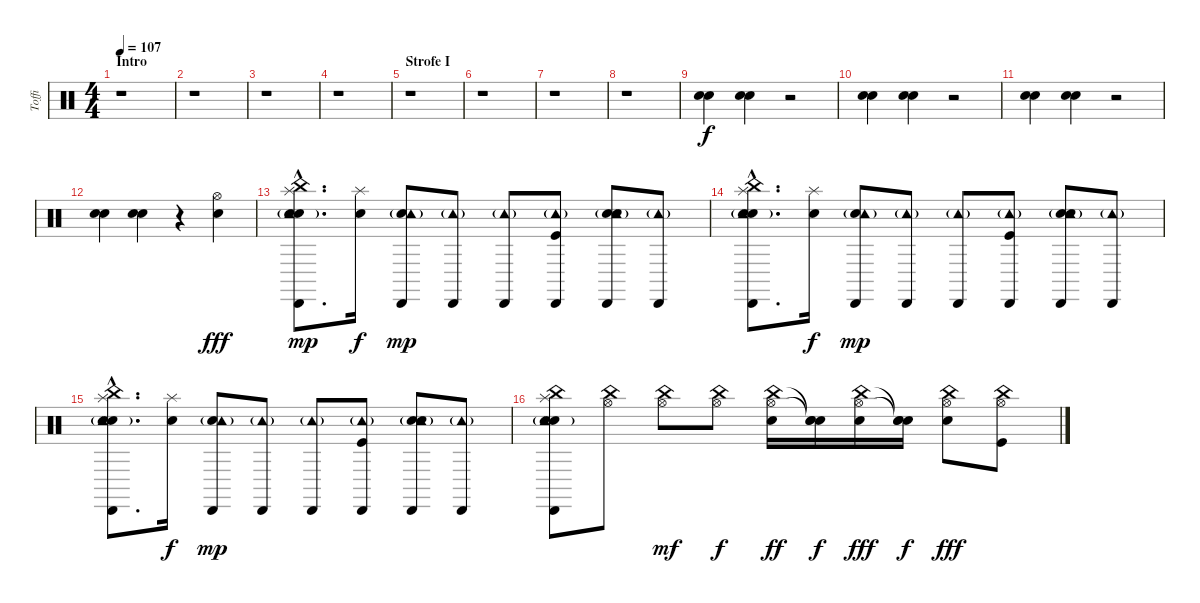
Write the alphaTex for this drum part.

\track ("Toffi" "Toffi") {instrument percussion}
\staff {score}
\articulation defaults
\ts (4 4)
\section ("" "Intro")
\tempo 107
\clef neutral
\ks c
r.1{dy f} |
r.1 |
r.1 |
r.1 |
\section ("" "Strofe I")
r.1 |
r.1 |
r.1 |
r.1 |
("Snare (hit) 2" "Electric Snare (hit)").4 ("Snare (hit) 2" "Electric Snare (hit)").4 r.2 |
("Snare (hit) 2" "Electric Snare (hit)").4 ("Snare (hit) 2" "Electric Snare (hit)").4 r.2 |
("Snare (hit) 2" "Electric Snare (hit)").4 ("Snare (hit) 2" "Electric Snare (hit)").4 r.2 |
("Snare (hit) 2" "Electric Snare (hit)").4 ("Snare (hit) 2" "Electric Snare (hit)").4 r.4 ("Electric Snare (hit)" "Hi-Hat (open)").4{dy fff} |
("Snare (hit) 2"{hac} "Electric Snare (hit)"{hac} "Splash (hit)"{hac} "China (hit)"{hac} "Cabasa (hit)"{hac} "Tambourine (hit)"{g hac}).8{d dy mp} ("Splash (hit)" "Electric Snare (hit)").16{dy f} ("Snare (hit) 2" "Cabasa (hit)" "Tambourine (hit)"{g}).8{dy mp} ("Cabasa (hit)" "Tambourine (hit)"{g}).8 ("Cabasa (hit)" "Tambourine (hit)"{g}).8 ("Kick (hit)" "Cabasa (hit)" "Tambourine (hit)"{g}).8 ("Electric Snare (hit)" "Snare (hit) 2" "Cabasa (hit)" "Tambourine (hit)"{g}).8 ("Cabasa (hit)" "Tambourine (hit)"{g}).8 |
("Snare (hit) 2"{hac} "Electric Snare (hit)"{hac} "Splash (hit)"{hac} "China (hit)"{hac} "Cabasa (hit)"{hac} "Tambourine (hit)"{g hac}).8{d} ("Splash (hit)" "Electric Snare (hit)").16{dy f} ("Snare (hit) 2" "Cabasa (hit)" "Tambourine (hit)"{g}).8{dy mp} ("Cabasa (hit)" "Tambourine (hit)"{g}).8 ("Cabasa (hit)" "Tambourine (hit)"{g}).8 ("Kick (hit)" "Cabasa (hit)" "Tambourine (hit)"{g}).8 ("Electric Snare (hit)" "Snare (hit) 2" "Cabasa (hit)" "Tambourine (hit)"{g}).8 ("Cabasa (hit)" "Tambourine (hit)"{g}).8 |
("Snare (hit) 2"{hac} "Electric Snare (hit)"{hac} "Splash (hit)"{hac} "China (hit)"{hac} "Cabasa (hit)"{hac} "Tambourine (hit)"{g hac}).8{d} ("Splash (hit)" "Electric Snare (hit)").16{dy f} ("Snare (hit) 2" "Cabasa (hit)" "Tambourine (hit)"{g}).8{dy mp} ("Cabasa (hit)" "Tambourine (hit)"{g}).8 ("Cabasa (hit)" "Tambourine (hit)"{g}).8 ("Kick (hit)" "Cabasa (hit)" "Tambourine (hit)"{g}).8 ("Electric Snare (hit)" "Snare (hit) 2" "Cabasa (hit)" "Tambourine (hit)"{g}).8 ("Cabasa (hit)" "Tambourine (hit)"{g}).8 |
("Snare (hit) 2" "Electric Snare (hit)" "Splash (hit)" "China (hit)" "Cabasa (hit)" "Tambourine (hit)"{g}).8 ("China (hit)" "Hi-Hat (open)").8 ("China (hit)" "Hi-Hat (open)").8{dy mf} ("China (hit)" "Hi-Hat (open)").8{dy f} ("China (hit)" "Hi-Hat (open)" "Snare (hit) 2").16{dy ff} ("Snare (hit)"{t} "Snare (hit)"{t} "Electric Snare (hit)").16{dy f} ("China (hit)" "Hi-Hat (open)" "Snare (hit) 2").16{dy fff} ("Snare (hit)"{t} "Snare (hit)"{t} "Electric Snare (hit)").16{dy f} ("China (hit)" "Hi-Hat (open)" "Snare (hit) 2").8{dy fff} ("China (hit)" "Hi-Hat (open)" "Kick (hit)").8
